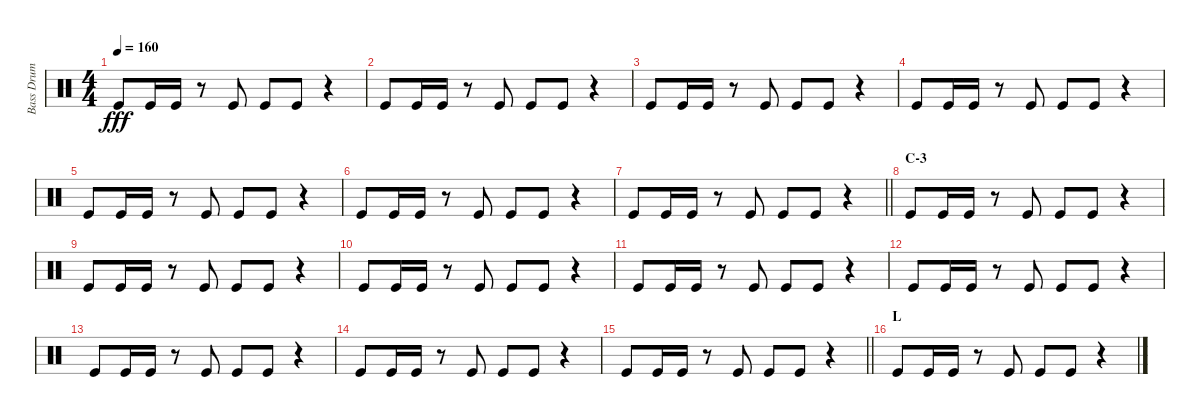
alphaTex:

\track ("Bass Drum" "Bass Drum") {instrument percussion}
\staff {score}
\articulation defaults
\ts (4 4)
\tempo 160
\clef neutral
\ks c "Kick (hit)".8{dy fff} "Kick (hit)".16 "Kick (hit)".16
r.8 "Kick (hit)".8 "Kick (hit)".8 "Kick (hit)".8 r.4 |
"Kick (hit)".8 "Kick (hit)".16 "Kick (hit)".16 r.8 "Kick (hit)".8 "Kick (hit)".8 "Kick (hit)".8 r.4 |
"Kick (hit)".8 "Kick (hit)".16 "Kick (hit)".16 r.8 "Kick (hit)".8 "Kick (hit)".8 "Kick (hit)".8 r.4 |
"Kick (hit)".8 "Kick (hit)".16 "Kick (hit)".16 r.8 "Kick (hit)".8 "Kick (hit)".8 "Kick (hit)".8 r.4 |
"Kick (hit)".8 "Kick (hit)".16 "Kick (hit)".16 r.8 "Kick (hit)".8 "Kick (hit)".8 "Kick (hit)".8 r.4 |
"Kick (hit)".8 "Kick (hit)".16 "Kick (hit)".16 r.8 "Kick (hit)".8 "Kick (hit)".8 "Kick (hit)".8 r.4 |
\barLineRight lightlight "Kick (hit)".8 "Kick (hit)".16 "Kick (hit)".16
r.8 "Kick (hit)".8 "Kick (hit)".8 "Kick (hit)".8 r.4 |
\section ("" "C-3")
"Kick (hit)".8 "Kick (hit)".16 "Kick (hit)".16 r.8 "Kick (hit)".8 "Kick (hit)".8 "Kick (hit)".8 r.4 |
"Kick (hit)".8 "Kick (hit)".16 "Kick (hit)".16 r.8 "Kick (hit)".8 "Kick (hit)".8 "Kick (hit)".8 r.4 |
"Kick (hit)".8 "Kick (hit)".16 "Kick (hit)".16 r.8 "Kick (hit)".8 "Kick (hit)".8 "Kick (hit)".8 r.4 |
"Kick (hit)".8 "Kick (hit)".16 "Kick (hit)".16 r.8 "Kick (hit)".8 "Kick (hit)".8 "Kick (hit)".8 r.4 |
"Kick (hit)".8 "Kick (hit)".16 "Kick (hit)".16 r.8 "Kick (hit)".8 "Kick (hit)".8 "Kick (hit)".8 r.4 |
"Kick (hit)".8 "Kick (hit)".16 "Kick (hit)".16 r.8 "Kick (hit)".8 "Kick (hit)".8 "Kick (hit)".8 r.4 |
"Kick (hit)".8 "Kick (hit)".16 "Kick (hit)".16 r.8 "Kick (hit)".8 "Kick (hit)".8 "Kick (hit)".8 r.4 |
\barLineRight lightlight "Kick (hit)".8 "Kick (hit)".16 "Kick (hit)".16
r.8 "Kick (hit)".8 "Kick (hit)".8 "Kick (hit)".8 r.4 |
\section ("" "L")
"Kick (hit)".8 "Kick (hit)".16 "Kick (hit)".16 r.8 "Kick (hit)".8 "Kick (hit)".8 "Kick (hit)".8 r.4
